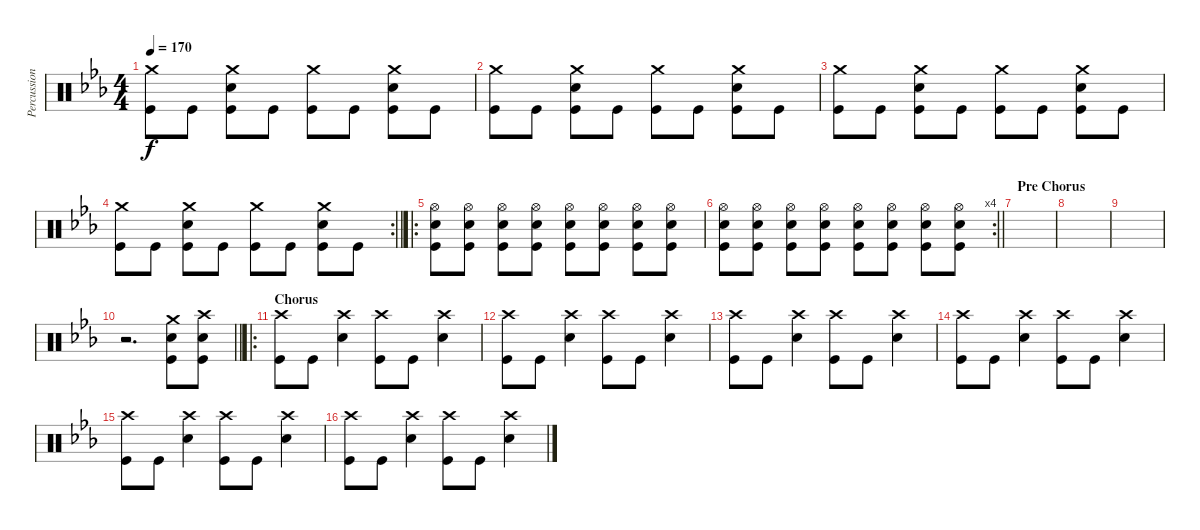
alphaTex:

\track ("Percussion" "Percussion") {instrument percussion}
\staff {score}
\articulation defaults
\ts (4 4)
\tempo 170
\clef neutral
\ks cminor
("Crash medium (hit)" "Kick (hit)").8{dy f} "Kick (hit)".8 ("Crash medium (hit)" "Snare (hit) 2" "Kick (hit)").8 "Kick (hit)".8 ("Crash medium (hit)" "Kick (hit)").8 "Kick (hit)".8 ("Crash medium (hit)" "Snare (hit) 2" "Kick (hit)").8 "Kick (hit)".8 |
("Crash medium (hit)" "Kick (hit)").8 "Kick (hit)".8 ("Crash medium (hit)" "Snare (hit) 2" "Kick (hit)").8 "Kick (hit)".8 ("Crash medium (hit)" "Kick (hit)").8 "Kick (hit)".8 ("Crash medium (hit)" "Snare (hit) 2" "Kick (hit)").8 "Kick (hit)".8 |
("Crash medium (hit)" "Kick (hit)").8 "Kick (hit)".8 ("Crash medium (hit)" "Snare (hit) 2" "Kick (hit)").8 "Kick (hit)".8 ("Crash medium (hit)" "Kick (hit)").8 "Kick (hit)".8 ("Crash medium (hit)" "Snare (hit) 2" "Kick (hit)").8 "Kick (hit)".8 |
\rc 2
\barLineRight lightlight
("Crash medium (hit)" "Kick (hit)").8 "Kick (hit)".8 ("Crash medium (hit)" "Snare (hit) 2" "Kick (hit)").8 "Kick (hit)".8 ("Crash medium (hit)" "Kick (hit)").8 "Kick (hit)".8 ("Crash medium (hit)" "Snare (hit) 2" "Kick (hit)").8 "Kick (hit)".8 |
\ro
("Hi-Hat (open)" "Snare (hit) 2" "Kick (hit)").8 ("Hi-Hat (open)" "Snare (hit) 2" "Kick (hit)").8 ("Hi-Hat (open)" "Snare (hit) 2" "Kick (hit)").8 ("Hi-Hat (open)" "Snare (hit) 2" "Kick (hit)").8 ("Hi-Hat (open)" "Snare (hit) 2" "Kick (hit)").8 ("Hi-Hat (open)" "Snare (hit) 2" "Kick (hit)").8 ("Hi-Hat (open)" "Snare (hit) 2" "Kick (hit)").8 ("Hi-Hat (open)" "Snare (hit) 2" "Kick (hit)").8 |
\rc 4
\barLineRight lightlight
("Hi-Hat (open)" "Snare (hit) 2" "Kick (hit)").8 ("Hi-Hat (open)" "Snare (hit) 2" "Kick (hit)").8 ("Hi-Hat (open)" "Snare (hit) 2" "Kick (hit)").8 ("Hi-Hat (open)" "Snare (hit) 2" "Kick (hit)").8 ("Hi-Hat (open)" "Snare (hit) 2" "Kick (hit)").8 ("Hi-Hat (open)" "Snare (hit) 2" "Kick (hit)").8 ("Hi-Hat (open)" "Snare (hit) 2" "Kick (hit)").8 ("Hi-Hat (open)" "Snare (hit) 2" "Kick (hit)").8 |
\section ("" "Pre Chorus")
|
|
|
\barLineRight lightlight
r.2{d} ("Crash medium (hit)" "Snare (hit) 2" "Kick (hit)").8 ("Crash high (hit)" "Snare (hit) 2" "Kick (hit)").8 |
\ro
\section ("" "Chorus")
("Crash high (hit)" "Kick (hit)").8 "Kick (hit)".8 ("Crash high (hit)" "Snare (hit) 2").4 ("Crash high (hit)" "Kick (hit)").8 "Kick (hit)".8 ("Crash high (hit)" "Snare (hit) 2").4 |
("Crash high (hit)" "Kick (hit)").8 "Kick (hit)".8 ("Crash high (hit)" "Snare (hit) 2").4 ("Crash high (hit)" "Kick (hit)").8 "Kick (hit)".8 ("Crash high (hit)" "Snare (hit) 2").4 |
("Crash high (hit)" "Kick (hit)").8 "Kick (hit)".8 ("Crash high (hit)" "Snare (hit) 2").4 ("Crash high (hit)" "Kick (hit)").8 "Kick (hit)".8 ("Crash high (hit)" "Snare (hit) 2").4 |
("Crash high (hit)" "Kick (hit)").8 "Kick (hit)".8 ("Crash high (hit)" "Snare (hit) 2").4 ("Crash high (hit)" "Kick (hit)").8 "Kick (hit)".8 ("Crash high (hit)" "Snare (hit) 2").4 |
("Crash high (hit)" "Kick (hit)").8 "Kick (hit)".8 ("Crash high (hit)" "Snare (hit) 2").4 ("Crash high (hit)" "Kick (hit)").8 "Kick (hit)".8 ("Crash high (hit)" "Snare (hit) 2").4 |
("Crash high (hit)" "Kick (hit)").8 "Kick (hit)".8 ("Crash high (hit)" "Snare (hit) 2").4 ("Crash high (hit)" "Kick (hit)").8 "Kick (hit)".8 ("Crash high (hit)" "Snare (hit) 2").4
